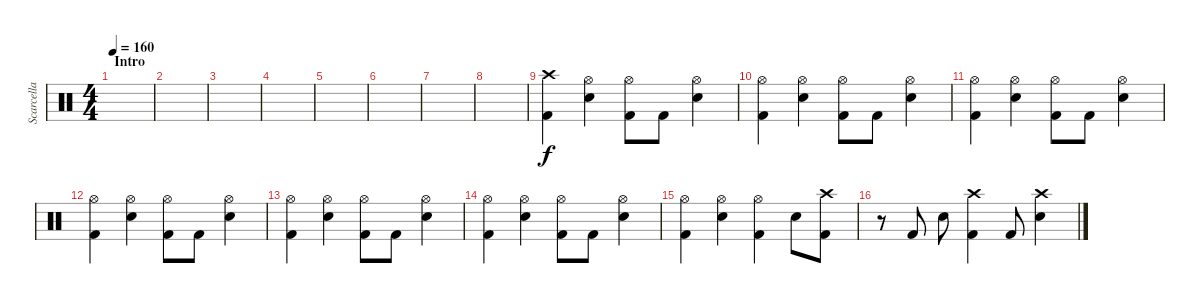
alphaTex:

\track ("Scarcella" "Scarcella") {instrument percussion}
\staff {score}
\articulation defaults
\ts (4 4)
\section ("" "Intro")
\tempo 160
\clef neutral
\ks c
|
|
|
|
|
|
|
|
("Crash high (hit)" "Kick (hit) 2").4 ("Hi-Hat (open)" "Snare (hit) 2").4 ("Hi-Hat (open)" "Kick (hit) 2").8 "Kick (hit) 2".8 ("Hi-Hat (open)" "Snare (hit) 2").4 |
("Hi-Hat (open)" "Kick (hit) 2").4 ("Hi-Hat (open)" "Snare (hit) 2").4 ("Hi-Hat (open)" "Kick (hit) 2").8 "Kick (hit) 2".8 ("Hi-Hat (open)" "Snare (hit) 2").4 |
("Hi-Hat (open)" "Kick (hit) 2").4 ("Hi-Hat (open)" "Snare (hit) 2").4 ("Hi-Hat (open)" "Kick (hit) 2").8 "Kick (hit) 2".8 ("Hi-Hat (open)" "Snare (hit) 2").4 |
("Hi-Hat (open)" "Kick (hit) 2").4 ("Hi-Hat (open)" "Snare (hit) 2").4 ("Hi-Hat (open)" "Kick (hit) 2").8 "Kick (hit) 2".8 ("Hi-Hat (open)" "Snare (hit) 2").4 |
("Hi-Hat (open)" "Kick (hit) 2").4 ("Hi-Hat (open)" "Snare (hit) 2").4 ("Hi-Hat (open)" "Kick (hit) 2").8 "Kick (hit) 2".8 ("Hi-Hat (open)" "Snare (hit) 2").4 |
("Hi-Hat (open)" "Kick (hit) 2").4 ("Hi-Hat (open)" "Snare (hit) 2").4 ("Hi-Hat (open)" "Kick (hit) 2").8 "Kick (hit) 2".8 ("Hi-Hat (open)" "Snare (hit) 2").4 |
("Hi-Hat (open)" "Kick (hit) 2").4 ("Hi-Hat (open)" "Snare (hit) 2").4 ("Hi-Hat (open)" "Kick (hit) 2").4 "Snare (hit) 2".8 ("Crash high (hit)" "Kick (hit) 2").8 |
r.8 "Kick (hit) 2".8 "Snare (hit) 2".8 ("Crash high (hit)" "Kick (hit) 2").4 "Kick (hit) 2".8 ("Crash high (hit)" "Snare (hit) 2").4
